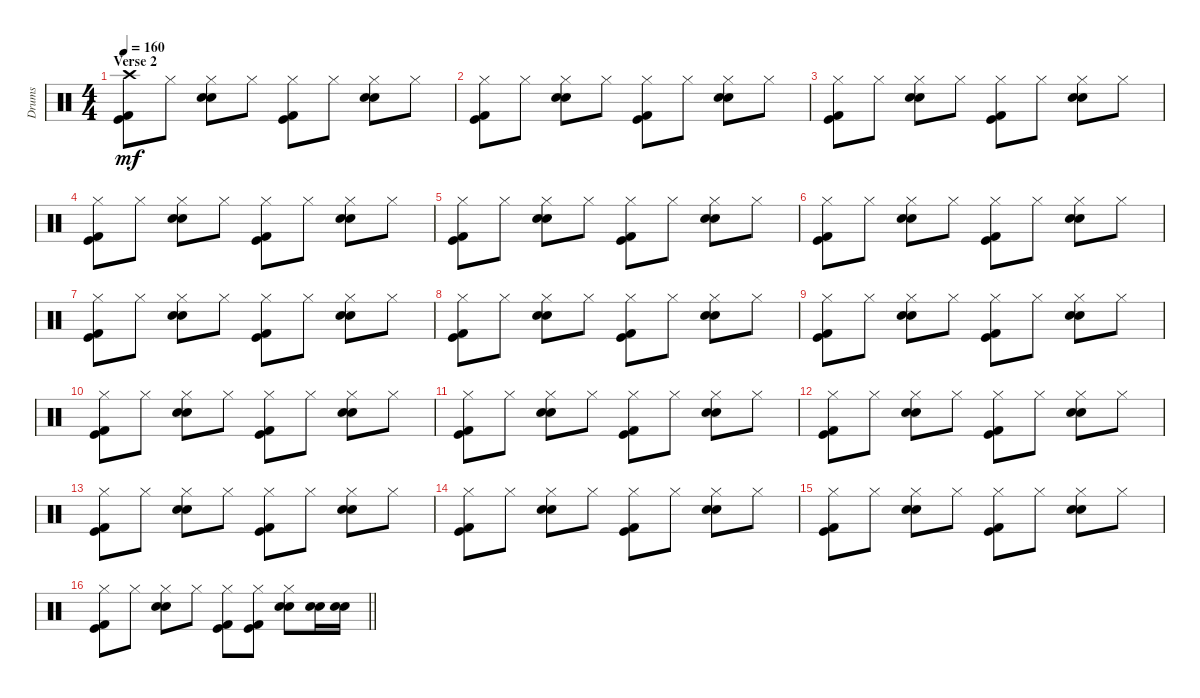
\track ("Drums" "Drums") {instrument percussion}
\staff {score}
\articulation defaults
\ts (4 4)
\section ("" "Verse 2")
\tempo 160
\clef neutral
\ks c
("Crash high (hit)" "Kick (hit) 2" "Kick (hit)").8{dy mf} "Hi-Hat (closed)".8 ("Hi-Hat (closed)" "Snare (hit) 2" "Electric Snare (hit)").8 "Hi-Hat (closed)".8 ("Hi-Hat (closed)" "Kick (hit) 2" "Kick (hit)").8 "Hi-Hat (closed)".8 ("Hi-Hat (closed)" "Snare (hit) 2" "Electric Snare (hit)").8 "Hi-Hat (closed)".8 |
("Hi-Hat (closed)" "Kick (hit) 2" "Kick (hit)").8 "Hi-Hat (closed)".8 ("Hi-Hat (closed)" "Snare (hit) 2" "Electric Snare (hit)").8 "Hi-Hat (closed)".8 ("Hi-Hat (closed)" "Kick (hit) 2" "Kick (hit)").8 "Hi-Hat (closed)".8 ("Hi-Hat (closed)" "Snare (hit) 2" "Electric Snare (hit)").8 "Hi-Hat (closed)".8 |
("Hi-Hat (closed)" "Kick (hit) 2" "Kick (hit)").8 "Hi-Hat (closed)".8 ("Hi-Hat (closed)" "Snare (hit) 2" "Electric Snare (hit)").8 "Hi-Hat (closed)".8 ("Hi-Hat (closed)" "Kick (hit) 2" "Kick (hit)").8 "Hi-Hat (closed)".8 ("Hi-Hat (closed)" "Snare (hit) 2" "Electric Snare (hit)").8 "Hi-Hat (closed)".8 |
("Hi-Hat (closed)" "Kick (hit) 2" "Kick (hit)").8 "Hi-Hat (closed)".8 ("Hi-Hat (closed)" "Snare (hit) 2" "Electric Snare (hit)").8 "Hi-Hat (closed)".8 ("Hi-Hat (closed)" "Kick (hit) 2" "Kick (hit)").8 "Hi-Hat (closed)".8 ("Hi-Hat (closed)" "Snare (hit) 2" "Electric Snare (hit)").8 "Hi-Hat (closed)".8 |
("Hi-Hat (closed)" "Kick (hit) 2" "Kick (hit)").8 "Hi-Hat (closed)".8 ("Hi-Hat (closed)" "Snare (hit) 2" "Electric Snare (hit)").8 "Hi-Hat (closed)".8 ("Hi-Hat (closed)" "Kick (hit) 2" "Kick (hit)").8 "Hi-Hat (closed)".8 ("Hi-Hat (closed)" "Snare (hit) 2" "Electric Snare (hit)").8 "Hi-Hat (closed)".8 |
("Hi-Hat (closed)" "Kick (hit) 2" "Kick (hit)").8 "Hi-Hat (closed)".8 ("Hi-Hat (closed)" "Snare (hit) 2" "Electric Snare (hit)").8 "Hi-Hat (closed)".8 ("Hi-Hat (closed)" "Kick (hit) 2" "Kick (hit)").8 "Hi-Hat (closed)".8 ("Hi-Hat (closed)" "Snare (hit) 2" "Electric Snare (hit)").8 "Hi-Hat (closed)".8 |
("Hi-Hat (closed)" "Kick (hit) 2" "Kick (hit)").8 "Hi-Hat (closed)".8 ("Hi-Hat (closed)" "Snare (hit) 2" "Electric Snare (hit)").8 "Hi-Hat (closed)".8 ("Hi-Hat (closed)" "Kick (hit) 2" "Kick (hit)").8 "Hi-Hat (closed)".8 ("Hi-Hat (closed)" "Snare (hit) 2" "Electric Snare (hit)").8 "Hi-Hat (closed)".8 |
("Hi-Hat (closed)" "Kick (hit) 2" "Kick (hit)").8 "Hi-Hat (closed)".8 ("Hi-Hat (closed)" "Snare (hit) 2" "Electric Snare (hit)").8 "Hi-Hat (closed)".8 ("Hi-Hat (closed)" "Kick (hit) 2" "Kick (hit)").8 "Hi-Hat (closed)".8 ("Hi-Hat (closed)" "Snare (hit) 2" "Electric Snare (hit)").8 "Hi-Hat (closed)".8 |
("Hi-Hat (closed)" "Kick (hit) 2" "Kick (hit)").8 "Hi-Hat (closed)".8 ("Hi-Hat (closed)" "Snare (hit) 2" "Electric Snare (hit)").8 "Hi-Hat (closed)".8 ("Hi-Hat (closed)" "Kick (hit) 2" "Kick (hit)").8 "Hi-Hat (closed)".8 ("Hi-Hat (closed)" "Snare (hit) 2" "Electric Snare (hit)").8 "Hi-Hat (closed)".8 |
("Hi-Hat (closed)" "Kick (hit) 2" "Kick (hit)").8 "Hi-Hat (closed)".8 ("Hi-Hat (closed)" "Snare (hit) 2" "Electric Snare (hit)").8 "Hi-Hat (closed)".8 ("Hi-Hat (closed)" "Kick (hit) 2" "Kick (hit)").8 "Hi-Hat (closed)".8 ("Hi-Hat (closed)" "Snare (hit) 2" "Electric Snare (hit)").8 "Hi-Hat (closed)".8 |
("Hi-Hat (closed)" "Kick (hit) 2" "Kick (hit)").8 "Hi-Hat (closed)".8 ("Hi-Hat (closed)" "Snare (hit) 2" "Electric Snare (hit)").8 "Hi-Hat (closed)".8 ("Hi-Hat (closed)" "Kick (hit) 2" "Kick (hit)").8 "Hi-Hat (closed)".8 ("Hi-Hat (closed)" "Snare (hit) 2" "Electric Snare (hit)").8 "Hi-Hat (closed)".8 |
("Hi-Hat (closed)" "Kick (hit) 2" "Kick (hit)").8 "Hi-Hat (closed)".8 ("Hi-Hat (closed)" "Snare (hit) 2" "Electric Snare (hit)").8 "Hi-Hat (closed)".8 ("Hi-Hat (closed)" "Kick (hit) 2" "Kick (hit)").8 "Hi-Hat (closed)".8 ("Hi-Hat (closed)" "Snare (hit) 2" "Electric Snare (hit)").8 "Hi-Hat (closed)".8 |
("Hi-Hat (closed)" "Kick (hit) 2" "Kick (hit)").8 "Hi-Hat (closed)".8 ("Hi-Hat (closed)" "Snare (hit) 2" "Electric Snare (hit)").8 "Hi-Hat (closed)".8 ("Hi-Hat (closed)" "Kick (hit) 2" "Kick (hit)").8 "Hi-Hat (closed)".8 ("Hi-Hat (closed)" "Snare (hit) 2" "Electric Snare (hit)").8 "Hi-Hat (closed)".8 |
("Hi-Hat (closed)" "Kick (hit) 2" "Kick (hit)").8 "Hi-Hat (closed)".8 ("Hi-Hat (closed)" "Snare (hit) 2" "Electric Snare (hit)").8 "Hi-Hat (closed)".8 ("Hi-Hat (closed)" "Kick (hit) 2" "Kick (hit)").8 "Hi-Hat (closed)".8 ("Hi-Hat (closed)" "Snare (hit) 2" "Electric Snare (hit)").8 "Hi-Hat (closed)".8 |
("Hi-Hat (closed)" "Kick (hit) 2" "Kick (hit)").8 "Hi-Hat (closed)".8 ("Hi-Hat (closed)" "Snare (hit) 2" "Electric Snare (hit)").8 "Hi-Hat (closed)".8 ("Hi-Hat (closed)" "Kick (hit) 2" "Kick (hit)").8 "Hi-Hat (closed)".8 ("Hi-Hat (closed)" "Snare (hit) 2" "Electric Snare (hit)").8 "Hi-Hat (closed)".8 |
\barLineRight lightlight
("Hi-Hat (closed)" "Kick (hit) 2" "Kick (hit)").8 "Hi-Hat (closed)".8 ("Hi-Hat (closed)" "Snare (hit) 2" "Electric Snare (hit)").8 "Hi-Hat (closed)".8 ("Hi-Hat (closed)" "Kick (hit) 2" "Kick (hit)").8 ("Hi-Hat (closed)" "Kick (hit) 2" "Kick (hit)").8 ("Hi-Hat (closed)" "Snare (hit) 2" "Electric Snare (hit)").8 ("Snare (hit) 2" "Electric Snare (hit)").16 ("Snare (hit) 2" "Electric Snare (hit)").16
